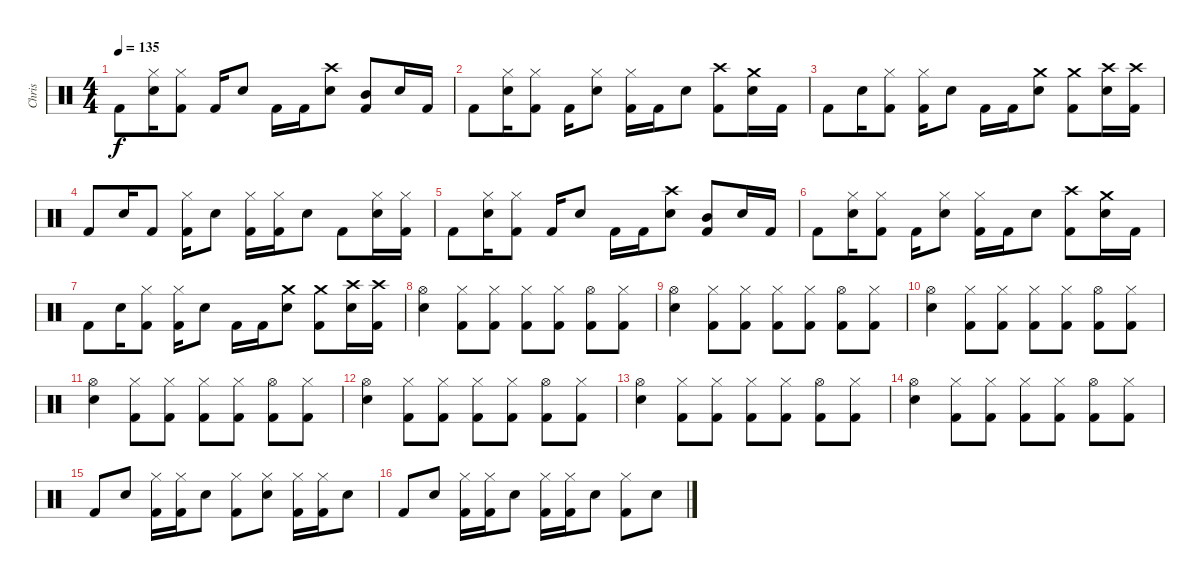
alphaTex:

\track ("Chris" "Chris") {instrument percussion}
\staff {score}
\articulation defaults
\ts (4 4)
\tempo 135
\clef neutral
\ks c "Kick (hit) 2".8{dy f}
("Hi-Hat (closed)" "Snare (hit) 2").16 ("Hi-Hat (closed)" "Kick (hit) 2").8 "Kick (hit) 2".16 "Snare (hit) 2".8 "Kick (hit) 2".16 "Kick (hit) 2".16 ("Crash high (hit)" "Snare (hit) 2").8 ("Mid Tom (hit)" "Kick (hit) 2").8 "Snare (hit) 2".16 "Kick (hit) 2".16 |
"Kick (hit) 2".8 ("Hi-Hat (closed)" "Snare (hit) 2").16 ("Hi-Hat (closed)" "Kick (hit) 2").8 "Kick (hit) 2".16 ("Hi-Hat (closed)" "Snare (hit) 2").8 ("Hi-Hat (closed)" "Kick (hit) 2").16 "Kick (hit) 2".16 "Snare (hit) 2".8 ("Crash high (hit)" "Kick (hit) 2").8 ("Crash medium (hit)" "Snare (hit) 2").16 "Kick (hit) 2".16 |
"Kick (hit) 2".8 "Snare (hit) 2".16 ("Hi-Hat (closed)" "Kick (hit) 2").8 ("Hi-Hat (closed)" "Kick (hit) 2").16 "Snare (hit) 2".8 "Kick (hit) 2".16 "Kick (hit) 2".16 ("Crash medium (hit)" "Snare (hit) 2").8 ("Crash medium (hit)" "Kick (hit) 2").8 ("Crash high (hit)" "Snare (hit) 2").16 ("Crash high (hit)" "Kick (hit) 2").16 |
"Kick (hit) 2".8 "Snare (hit) 2".16 "Kick (hit) 2".8 ("Hi-Hat (closed)" "Kick (hit) 2").16 "Snare (hit) 2".8 ("Hi-Hat (closed)" "Kick (hit) 2").16 ("Hi-Hat (closed)" "Kick (hit) 2").16 "Snare (hit) 2".8 "Kick (hit) 2".8 ("Hi-Hat (closed)" "Snare (hit) 2").16 ("Hi-Hat (closed)" "Kick (hit) 2").16 |
"Kick (hit) 2".8 ("Hi-Hat (closed)" "Snare (hit) 2").16 ("Hi-Hat (closed)" "Kick (hit) 2").8 "Kick (hit) 2".16 "Snare (hit) 2".8 "Kick (hit) 2".16 "Kick (hit) 2".16 ("Crash high (hit)" "Snare (hit) 2").8 ("Mid Tom (hit)" "Kick (hit) 2").8 "Snare (hit) 2".16 "Kick (hit) 2".16 |
"Kick (hit) 2".8 ("Hi-Hat (closed)" "Snare (hit) 2").16 ("Hi-Hat (closed)" "Kick (hit) 2").8 "Kick (hit) 2".16 ("Hi-Hat (closed)" "Snare (hit) 2").8 ("Hi-Hat (closed)" "Kick (hit) 2").16 "Kick (hit) 2".16 "Snare (hit) 2".8 ("Crash high (hit)" "Kick (hit) 2").8 ("Crash medium (hit)" "Snare (hit) 2").16 "Kick (hit) 2".16 |
"Kick (hit) 2".8 "Snare (hit) 2".16 ("Hi-Hat (closed)" "Kick (hit) 2").8 ("Hi-Hat (closed)" "Kick (hit) 2").16 "Snare (hit) 2".8 "Kick (hit) 2".16 "Kick (hit) 2".16 ("Crash medium (hit)" "Snare (hit) 2").8 ("Crash medium (hit)" "Kick (hit) 2").8 ("Crash high (hit)" "Snare (hit) 2").16 ("Crash high (hit)" "Kick (hit) 2").16 |
("Hi-Hat (open)" "Snare (hit) 2").4 ("Hi-Hat (closed)" "Kick (hit) 2").8 ("Hi-Hat (closed)" "Kick (hit) 2").8 ("Hi-Hat (closed)" "Kick (hit) 2").8 ("Hi-Hat (closed)" "Kick (hit) 2").8 ("Hi-Hat (open)" "Kick (hit) 2").8 ("Hi-Hat (closed)" "Kick (hit) 2").8 |
("Hi-Hat (open)" "Snare (hit) 2").4 ("Hi-Hat (closed)" "Kick (hit) 2").8 ("Hi-Hat (closed)" "Kick (hit) 2").8 ("Hi-Hat (closed)" "Kick (hit) 2").8 ("Hi-Hat (closed)" "Kick (hit) 2").8 ("Hi-Hat (open)" "Kick (hit) 2").8 ("Hi-Hat (closed)" "Kick (hit) 2").8 |
("Hi-Hat (open)" "Snare (hit) 2").4 ("Hi-Hat (closed)" "Kick (hit) 2").8 ("Hi-Hat (closed)" "Kick (hit) 2").8 ("Hi-Hat (closed)" "Kick (hit) 2").8 ("Hi-Hat (closed)" "Kick (hit) 2").8 ("Hi-Hat (open)" "Kick (hit) 2").8 ("Hi-Hat (closed)" "Kick (hit) 2").8 |
("Hi-Hat (open)" "Snare (hit) 2").4 ("Hi-Hat (closed)" "Kick (hit) 2").8 ("Hi-Hat (closed)" "Kick (hit) 2").8 ("Hi-Hat (closed)" "Kick (hit) 2").8 ("Hi-Hat (closed)" "Kick (hit) 2").8 ("Hi-Hat (open)" "Kick (hit) 2").8 ("Hi-Hat (closed)" "Kick (hit) 2").8 |
("Hi-Hat (open)" "Snare (hit) 2").4 ("Hi-Hat (closed)" "Kick (hit) 2").8 ("Hi-Hat (closed)" "Kick (hit) 2").8 ("Hi-Hat (closed)" "Kick (hit) 2").8 ("Hi-Hat (closed)" "Kick (hit) 2").8 ("Hi-Hat (open)" "Kick (hit) 2").8 ("Hi-Hat (closed)" "Kick (hit) 2").8 |
("Hi-Hat (open)" "Snare (hit) 2").4 ("Hi-Hat (closed)" "Kick (hit) 2").8 ("Hi-Hat (closed)" "Kick (hit) 2").8 ("Hi-Hat (closed)" "Kick (hit) 2").8 ("Hi-Hat (closed)" "Kick (hit) 2").8 ("Hi-Hat (open)" "Kick (hit) 2").8 ("Hi-Hat (closed)" "Kick (hit) 2").8 |
("Hi-Hat (open)" "Snare (hit) 2").4 ("Hi-Hat (closed)" "Kick (hit) 2").8 ("Hi-Hat (closed)" "Kick (hit) 2").8 ("Hi-Hat (closed)" "Kick (hit) 2").8 ("Hi-Hat (closed)" "Kick (hit) 2").8 ("Hi-Hat (open)" "Kick (hit) 2").8 ("Hi-Hat (closed)" "Kick (hit) 2").8 |
"Kick (hit) 2".8 "Snare (hit) 2".8 ("Hi-Hat (closed)" "Kick (hit) 2").16 ("Hi-Hat (closed)" "Kick (hit) 2").16 "Snare (hit) 2".8 ("Hi-Hat (closed)" "Kick (hit) 2").8 ("Hi-Hat (closed)" "Snare (hit) 2").8 ("Hi-Hat (closed)" "Kick (hit) 2").16 ("Hi-Hat (closed)" "Kick (hit) 2").16 "Snare (hit) 2".8 |
"Kick (hit) 2".8 "Snare (hit) 2".8 ("Hi-Hat (closed)" "Kick (hit) 2").16 ("Hi-Hat (closed)" "Kick (hit) 2").16 "Snare (hit) 2".8 ("Hi-Hat (closed)" "Kick (hit) 2").16 ("Hi-Hat (closed)" "Kick (hit) 2").16 "Snare (hit) 2".8 ("Hi-Hat (closed)" "Kick (hit) 2").8 "Snare (hit) 2".8
